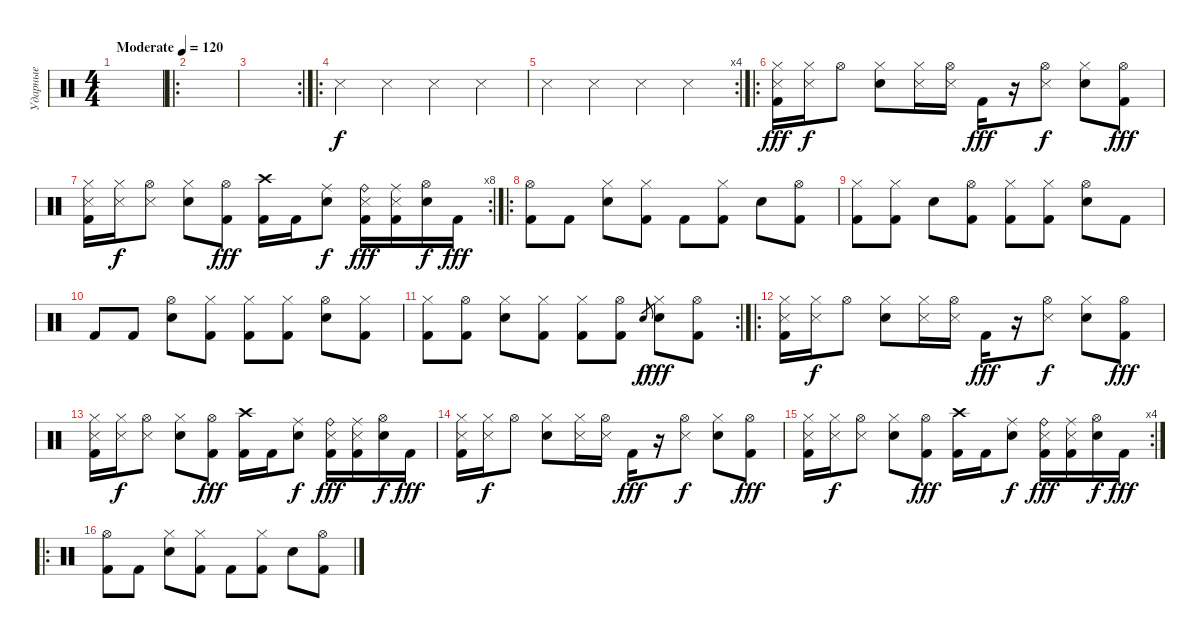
\track ("Ударные" "Ударные") {instrument percussion}
\staff {score}
\articulation defaults
\ts (4 4)
\tempo (120 "Moderate")
\clef neutral
\ks c
|
\ro
|
\rc 2
|
\ro "Snare (side stick) 3".4 "Snare (side stick) 3".4 "Snare (side stick) 3".4 "Snare (side stick) 3".4
|
\rc 4 "Snare (side stick) 3".4 "Snare (side stick) 3".4 "Snare (side stick) 3".4 "Snare (side stick) 3".4
|
\ro
("Hi-Hat (closed)" "Snare (side stick) 3" "Kick (hit) 2").16{dy fff} ("Hi-Hat (closed)" "Snare (side stick) 3").16{dy f} "Hi-Hat (open)".8 ("Hi-Hat (closed)" "Electric Snare (hit)").8 ("Hi-Hat (closed)" "Snare (side stick) 3").16 ("Hi-Hat (open)" "Snare (side stick) 3").16 "Kick (hit) 2".16{dy fff} r.16 ("Hi-Hat (open)" "Snare (side stick) 3").8{dy f} ("Hi-Hat (closed)" "Electric Snare (hit)").8 ("Hi-Hat (open)" "Kick (hit) 2").8{dy fff} |
\rc 8
("Hi-Hat (closed)" "Snare (side stick) 3" "Kick (hit) 2").16 ("Hi-Hat (closed)" "Snare (side stick) 3").16{dy f} ("Hi-Hat (open)" "Snare (side stick) 3").8 ("Hi-Hat (closed)" "Electric Snare (hit)").8 ("Hi-Hat (open)" "Kick (hit) 2").8{dy fff} ("Crash high (hit)" "Kick (hit) 2").16 "Kick (hit) 2".16 ("Ride (middle)" "Electric Snare (hit)").8{dy f} ("Ride (bell)" "Snare (side stick) 3" "Kick (hit) 2").16{dy fff} ("Ride (middle)" "Snare (side stick) 3" "Kick (hit) 2").16 ("Hi-Hat (open)" "Electric Snare (hit)").16{dy f} "Kick (hit) 2".16{dy fff} |
\ro
("Hi-Hat (open)" "Kick (hit) 2").8 "Kick (hit) 2".8 ("Hi-Hat (closed)" "Electric Snare (hit)").8 ("Hi-Hat (closed)" "Kick (hit) 2").8 "Kick (hit) 2".8 ("Hi-Hat (closed)" "Kick (hit) 2").8 "Electric Snare (hit)".8 ("Hi-Hat (open)" "Kick (hit) 2").8 |
("Hi-Hat (closed)" "Kick (hit) 2").8 ("Hi-Hat (closed)" "Kick (hit) 2").8 "Electric Snare (hit)".8 ("Hi-Hat (open)" "Kick (hit) 2").8 ("Hi-Hat (closed)" "Kick (hit) 2").8 ("Hi-Hat (closed)" "Kick (hit) 2").8 ("Hi-Hat (open)" "Electric Snare (hit)").8 "Kick (hit) 2".8 |
"Kick (hit) 2".8 "Kick (hit) 2".8 ("Hi-Hat (open)" "Electric Snare (hit)").8 ("Hi-Hat (closed)" "Kick (hit) 2").8 ("Hi-Hat (closed)" "Kick (hit) 2").8 ("Hi-Hat (closed)" "Kick (hit) 2").8 ("Hi-Hat (open)" "Electric Snare (hit)").8 ("Hi-Hat (closed)" "Kick (hit) 2").8 |
\rc 2
("Hi-Hat (closed)" "Kick (hit) 2").8 ("Hi-Hat (open)" "Kick (hit) 2").8 ("Hi-Hat (closed)" "Electric Snare (hit)").8 ("Hi-Hat (closed)" "Kick (hit) 2").8 ("Hi-Hat (closed)" "Kick (hit) 2").8 ("Hi-Hat (open)" "Kick (hit) 2").8 "Electric Snare (hit)".8{gr dy f} ("Hi-Hat (closed)" "Electric Snare (hit)").8{dy fff} ("Hi-Hat (open)" "Kick (hit) 2").8 |
\ro
("Hi-Hat (closed)" "Snare (side stick) 3" "Kick (hit) 2").16 ("Hi-Hat (closed)" "Snare (side stick) 3").16{dy f} "Hi-Hat (open)".8 ("Hi-Hat (closed)" "Electric Snare (hit)").8 ("Hi-Hat (closed)" "Snare (side stick) 3").16 ("Hi-Hat (open)" "Snare (side stick) 3").16 "Kick (hit) 2".16{dy fff} r.16 ("Hi-Hat (open)" "Snare (side stick) 3").8{dy f} ("Hi-Hat (closed)" "Electric Snare (hit)").8 ("Hi-Hat (open)" "Kick (hit) 2").8{dy fff} |
("Hi-Hat (closed)" "Snare (side stick) 3" "Kick (hit) 2").16 ("Hi-Hat (closed)" "Snare (side stick) 3").16{dy f} ("Hi-Hat (open)" "Snare (side stick) 3").8 ("Hi-Hat (closed)" "Electric Snare (hit)").8 ("Hi-Hat (open)" "Kick (hit) 2").8{dy fff} ("Crash high (hit)" "Kick (hit) 2").16 "Kick (hit) 2".16 ("Ride (middle)" "Electric Snare (hit)").8{dy f} ("Ride (bell)" "Snare (side stick) 3" "Kick (hit) 2").16{dy fff} ("Ride (middle)" "Snare (side stick) 3" "Kick (hit) 2").16 ("Hi-Hat (open)" "Electric Snare (hit)").16{dy f} "Kick (hit) 2".16{dy fff} |
("Hi-Hat (closed)" "Snare (side stick) 3" "Kick (hit) 2").16 ("Hi-Hat (closed)" "Snare (side stick) 3").16{dy f} "Hi-Hat (open)".8 ("Hi-Hat (closed)" "Electric Snare (hit)").8 ("Hi-Hat (closed)" "Snare (side stick) 3").16 ("Hi-Hat (open)" "Snare (side stick) 3").16 "Kick (hit) 2".16{dy fff} r.16 ("Hi-Hat (open)" "Snare (side stick) 3").8{dy f} ("Hi-Hat (closed)" "Electric Snare (hit)").8 ("Hi-Hat (open)" "Kick (hit) 2").8{dy fff} |
\rc 4
("Hi-Hat (closed)" "Snare (side stick) 3" "Kick (hit) 2").16 ("Hi-Hat (closed)" "Snare (side stick) 3").16{dy f} ("Hi-Hat (open)" "Snare (side stick) 3").8 ("Hi-Hat (closed)" "Electric Snare (hit)").8 ("Hi-Hat (open)" "Kick (hit) 2").8{dy fff} ("Crash high (hit)" "Kick (hit) 2").16 "Kick (hit) 2".16 ("Ride (middle)" "Electric Snare (hit)").8{dy f} ("Ride (bell)" "Snare (side stick) 3" "Kick (hit) 2").16{dy fff} ("Ride (middle)" "Snare (side stick) 3" "Kick (hit) 2").16 ("Hi-Hat (open)" "Electric Snare (hit)").16{dy f} "Kick (hit) 2".16{dy fff} |
\ro
("Hi-Hat (open)" "Kick (hit) 2").8 "Kick (hit) 2".8 ("Hi-Hat (closed)" "Electric Snare (hit)").8 ("Hi-Hat (closed)" "Kick (hit) 2").8 "Kick (hit) 2".8 ("Hi-Hat (closed)" "Kick (hit) 2").8 "Electric Snare (hit)".8 ("Hi-Hat (open)" "Kick (hit) 2").8
